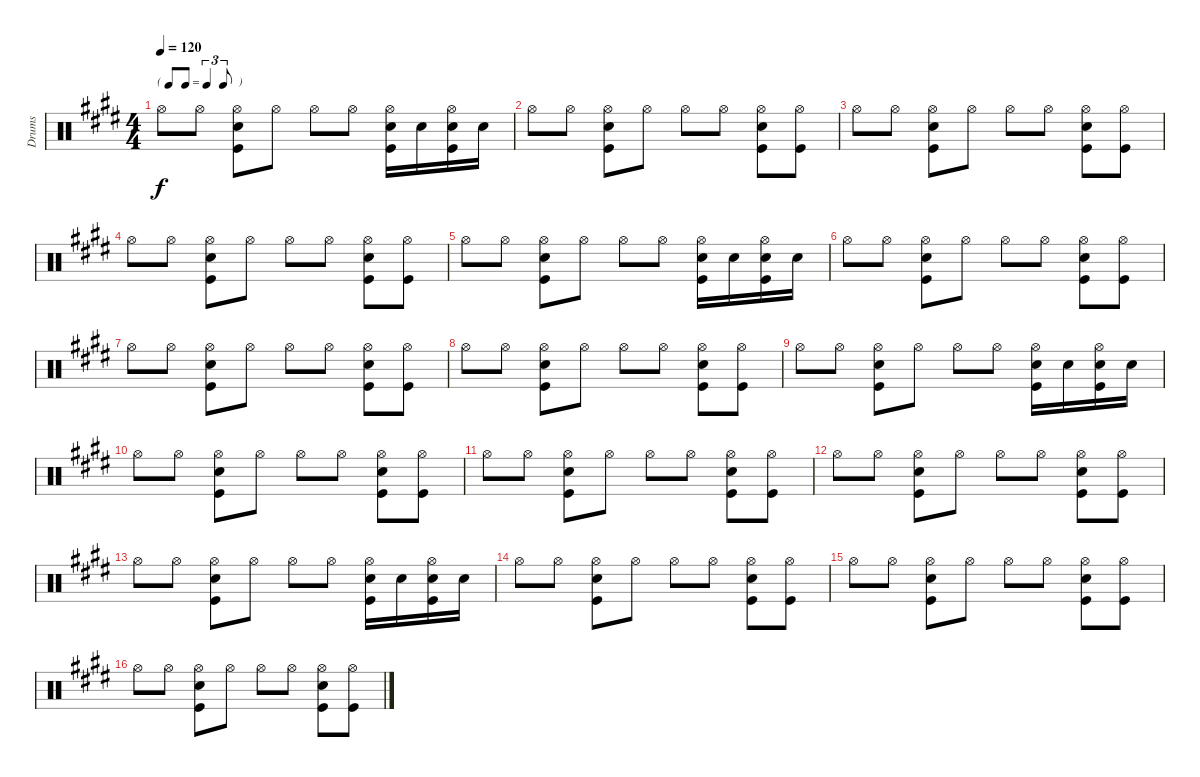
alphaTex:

\track ("Drums" "Drums") {instrument percussion}
\staff {score}
\articulation defaults
\ts (4 4)
\tf triplet8th
\tempo 120
\clef neutral
\ks e "Hi-Hat (open)".8{dy f} "Hi-Hat (open)".8
("Kick (hit)" "Electric Snare (hit)" "Hi-Hat (open)").8 "Hi-Hat (open)".8 "Hi-Hat (open)".8 "Hi-Hat (open)".8 ("Kick (hit)" "Snare (hit) 2" "Hi-Hat (open)").16 "Snare (hit) 2".16 ("Snare (hit) 2" "Kick (hit)" "Hi-Hat (open)").16 "Snare (hit) 2".16 |
"Hi-Hat (open)".8 "Hi-Hat (open)".8 ("Kick (hit)" "Electric Snare (hit)" "Hi-Hat (open)").8 "Hi-Hat (open)".8 "Hi-Hat (open)".8 "Hi-Hat (open)".8 ("Kick (hit)" "Electric Snare (hit)" "Hi-Hat (open)").8 ("Kick (hit)" "Hi-Hat (open)").8 |
"Hi-Hat (open)".8 "Hi-Hat (open)".8 ("Kick (hit)" "Electric Snare (hit)" "Hi-Hat (open)").8 "Hi-Hat (open)".8 "Hi-Hat (open)".8 "Hi-Hat (open)".8 ("Kick (hit)" "Electric Snare (hit)" "Hi-Hat (open)").8 ("Kick (hit)" "Hi-Hat (open)").8 |
"Hi-Hat (open)".8 "Hi-Hat (open)".8 ("Kick (hit)" "Electric Snare (hit)" "Hi-Hat (open)").8 "Hi-Hat (open)".8 "Hi-Hat (open)".8 "Hi-Hat (open)".8 ("Kick (hit)" "Electric Snare (hit)" "Hi-Hat (open)").8 ("Kick (hit)" "Hi-Hat (open)").8 |
"Hi-Hat (open)".8 "Hi-Hat (open)".8 ("Kick (hit)" "Electric Snare (hit)" "Hi-Hat (open)").8 "Hi-Hat (open)".8 "Hi-Hat (open)".8 "Hi-Hat (open)".8 ("Kick (hit)" "Electric Snare (hit)" "Hi-Hat (open)").16 "Electric Snare (hit)".16 ("Electric Snare (hit)" "Kick (hit)" "Hi-Hat (open)").16 "Electric Snare (hit)".16 |
"Hi-Hat (open)".8 "Hi-Hat (open)".8 ("Kick (hit)" "Electric Snare (hit)" "Hi-Hat (open)").8 "Hi-Hat (open)".8 "Hi-Hat (open)".8 "Hi-Hat (open)".8 ("Kick (hit)" "Electric Snare (hit)" "Hi-Hat (open)").8 ("Kick (hit)" "Hi-Hat (open)").8 |
"Hi-Hat (open)".8 "Hi-Hat (open)".8 ("Kick (hit)" "Electric Snare (hit)" "Hi-Hat (open)").8 "Hi-Hat (open)".8 "Hi-Hat (open)".8 "Hi-Hat (open)".8 ("Kick (hit)" "Electric Snare (hit)" "Hi-Hat (open)").8 ("Kick (hit)" "Hi-Hat (open)").8 |
"Hi-Hat (open)".8 "Hi-Hat (open)".8 ("Kick (hit)" "Electric Snare (hit)" "Hi-Hat (open)").8 "Hi-Hat (open)".8 "Hi-Hat (open)".8 "Hi-Hat (open)".8 ("Kick (hit)" "Electric Snare (hit)" "Hi-Hat (open)").8 ("Kick (hit)" "Hi-Hat (open)").8 |
"Hi-Hat (open)".8 "Hi-Hat (open)".8 ("Kick (hit)" "Electric Snare (hit)" "Hi-Hat (open)").8 "Hi-Hat (open)".8 "Hi-Hat (open)".8 "Hi-Hat (open)".8 ("Kick (hit)" "Electric Snare (hit)" "Hi-Hat (open)").16 "Electric Snare (hit)".16 ("Electric Snare (hit)" "Kick (hit)" "Hi-Hat (open)").16 "Electric Snare (hit)".16 |
"Hi-Hat (open)".8 "Hi-Hat (open)".8 ("Kick (hit)" "Electric Snare (hit)" "Hi-Hat (open)").8 "Hi-Hat (open)".8 "Hi-Hat (open)".8 "Hi-Hat (open)".8 ("Kick (hit)" "Electric Snare (hit)" "Hi-Hat (open)").8 ("Kick (hit)" "Hi-Hat (open)").8 |
"Hi-Hat (open)".8 "Hi-Hat (open)".8 ("Kick (hit)" "Electric Snare (hit)" "Hi-Hat (open)").8 "Hi-Hat (open)".8 "Hi-Hat (open)".8 "Hi-Hat (open)".8 ("Kick (hit)" "Electric Snare (hit)" "Hi-Hat (open)").8 ("Kick (hit)" "Hi-Hat (open)").8 |
"Hi-Hat (open)".8 "Hi-Hat (open)".8 ("Kick (hit)" "Electric Snare (hit)" "Hi-Hat (open)").8 "Hi-Hat (open)".8 "Hi-Hat (open)".8 "Hi-Hat (open)".8 ("Kick (hit)" "Electric Snare (hit)" "Hi-Hat (open)").8 ("Kick (hit)" "Hi-Hat (open)").8 |
"Hi-Hat (open)".8 "Hi-Hat (open)".8 ("Kick (hit)" "Electric Snare (hit)" "Hi-Hat (open)").8 "Hi-Hat (open)".8 "Hi-Hat (open)".8 "Hi-Hat (open)".8 ("Kick (hit)" "Electric Snare (hit)" "Hi-Hat (open)").16 "Electric Snare (hit)".16 ("Electric Snare (hit)" "Kick (hit)" "Hi-Hat (open)").16 "Electric Snare (hit)".16 |
"Hi-Hat (open)".8 "Hi-Hat (open)".8 ("Kick (hit)" "Electric Snare (hit)" "Hi-Hat (open)").8 "Hi-Hat (open)".8 "Hi-Hat (open)".8 "Hi-Hat (open)".8 ("Kick (hit)" "Electric Snare (hit)" "Hi-Hat (open)").8 ("Kick (hit)" "Hi-Hat (open)").8 |
"Hi-Hat (open)".8 "Hi-Hat (open)".8 ("Kick (hit)" "Electric Snare (hit)" "Hi-Hat (open)").8 "Hi-Hat (open)".8 "Hi-Hat (open)".8 "Hi-Hat (open)".8 ("Kick (hit)" "Electric Snare (hit)" "Hi-Hat (open)").8 ("Kick (hit)" "Hi-Hat (open)").8 |
"Hi-Hat (open)".8 "Hi-Hat (open)".8 ("Kick (hit)" "Electric Snare (hit)" "Hi-Hat (open)").8 "Hi-Hat (open)".8 "Hi-Hat (open)".8 "Hi-Hat (open)".8 ("Kick (hit)" "Electric Snare (hit)" "Hi-Hat (open)").8 ("Kick (hit)" "Hi-Hat (open)").8
